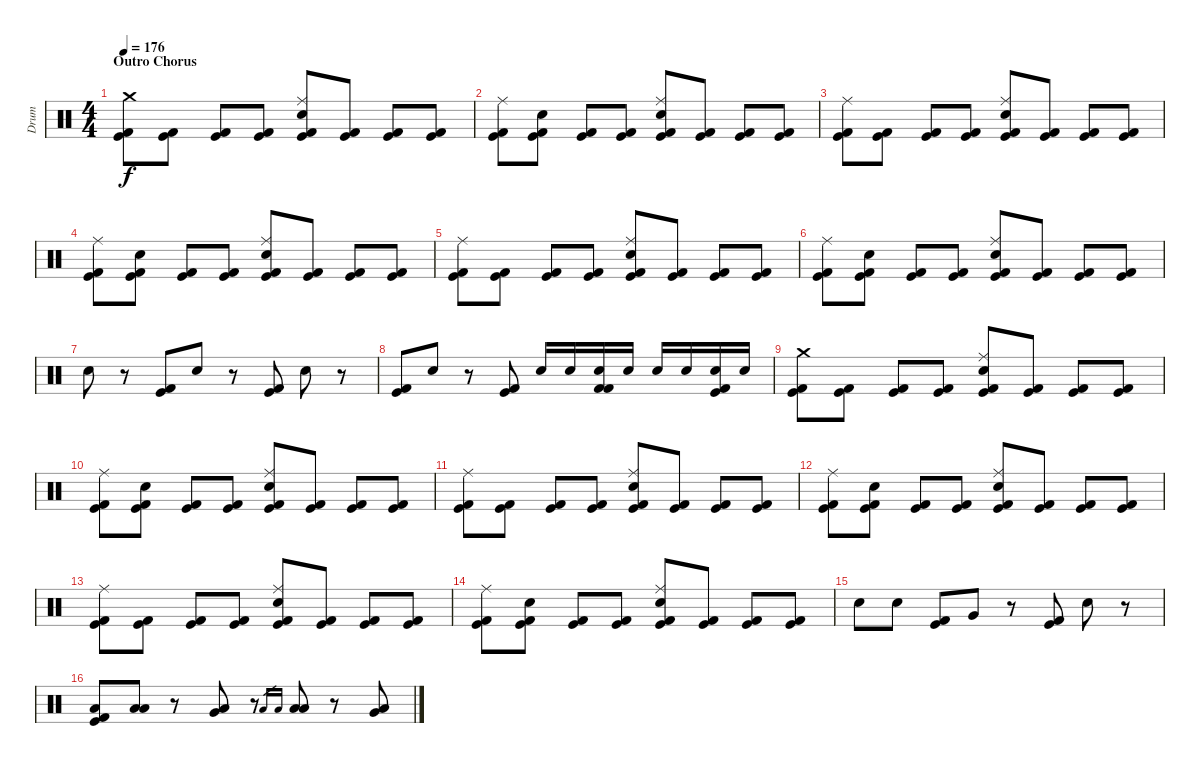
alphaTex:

\track ("Drum" "Drum") {instrument percussion}
\staff {score}
\articulation defaults
\ts (4 4)
\section ("" "Outro Chorus")
\tempo 176
\clef neutral
\ks c
("Crash medium (hit)" "Kick (hit)" "Kick (hit) 2").8{dy f} ("Kick (hit)" "Kick (hit) 2").8 ("Kick (hit)" "Kick (hit) 2").8 ("Kick (hit)" "Kick (hit) 2").8 ("Ride (middle)" "Electric Snare (hit)" "Kick (hit)" "Kick (hit) 2").8 ("Kick (hit)" "Kick (hit) 2").8 ("Kick (hit)" "Kick (hit) 2").8 ("Kick (hit)" "Kick (hit) 2").8 |
("Ride (middle)" "Kick (hit)" "Kick (hit) 2").8 ("Electric Snare (hit)" "Kick (hit)" "Kick (hit) 2").8 ("Kick (hit)" "Kick (hit) 2").8 ("Kick (hit)" "Kick (hit) 2").8 ("Ride (middle)" "Electric Snare (hit)" "Kick (hit)" "Kick (hit) 2").8 ("Kick (hit)" "Kick (hit) 2").8 ("Kick (hit)" "Kick (hit) 2").8 ("Kick (hit)" "Kick (hit) 2").8 |
("Ride (middle)" "Kick (hit)" "Kick (hit) 2").8 ("Kick (hit)" "Kick (hit) 2").8 ("Kick (hit)" "Kick (hit) 2").8 ("Kick (hit)" "Kick (hit) 2").8 ("Ride (middle)" "Electric Snare (hit)" "Kick (hit)" "Kick (hit) 2").8 ("Kick (hit)" "Kick (hit) 2").8 ("Kick (hit)" "Kick (hit) 2").8 ("Kick (hit)" "Kick (hit) 2").8 |
("Ride (middle)" "Kick (hit)" "Kick (hit) 2").8 ("Electric Snare (hit)" "Kick (hit)" "Kick (hit) 2").8 ("Kick (hit)" "Kick (hit) 2").8 ("Kick (hit)" "Kick (hit) 2").8 ("Ride (middle)" "Electric Snare (hit)" "Kick (hit)" "Kick (hit) 2").8 ("Kick (hit)" "Kick (hit) 2").8 ("Kick (hit)" "Kick (hit) 2").8 ("Kick (hit)" "Kick (hit) 2").8 |
("Ride (middle)" "Kick (hit)" "Kick (hit) 2").8 ("Kick (hit)" "Kick (hit) 2").8 ("Kick (hit)" "Kick (hit) 2").8 ("Kick (hit)" "Kick (hit) 2").8 ("Ride (middle)" "Electric Snare (hit)" "Kick (hit)" "Kick (hit) 2").8 ("Kick (hit)" "Kick (hit) 2").8 ("Kick (hit)" "Kick (hit) 2").8 ("Kick (hit)" "Kick (hit) 2").8 |
("Ride (middle)" "Kick (hit)" "Kick (hit) 2").8 ("Electric Snare (hit)" "Kick (hit)" "Kick (hit) 2").8 ("Kick (hit)" "Kick (hit) 2").8 ("Kick (hit)" "Kick (hit) 2").8 ("Ride (middle)" "Electric Snare (hit)" "Kick (hit)" "Kick (hit) 2").8 ("Kick (hit)" "Kick (hit) 2").8 ("Kick (hit)" "Kick (hit) 2").8 ("Kick (hit)" "Kick (hit) 2").8 |
"Electric Snare (hit)".8 r.8 ("Kick (hit)" "Kick (hit) 2").8 "Electric Snare (hit)".8 r.8 ("Kick (hit)" "Kick (hit) 2").8 "Electric Snare (hit)".8 r.8 |
("Kick (hit)" "Kick (hit) 2").8 "Electric Snare (hit)".8 r.8 ("Kick (hit)" "Kick (hit) 2").8 "Electric Snare (hit)".16 "Electric Snare (hit)".16 ("Electric Snare (hit)" "Kick (hit) 2" "Kick (hit) 2").16 "Electric Snare (hit)".16 "Electric Snare (hit)".16 "Electric Snare (hit)".16 ("Electric Snare (hit)" "Kick (hit)" "Kick (hit) 2").16 "Electric Snare (hit)".16 |
("Crash medium (hit)" "Kick (hit)" "Kick (hit) 2").8 ("Kick (hit)" "Kick (hit) 2").8 ("Kick (hit)" "Kick (hit) 2").8 ("Kick (hit)" "Kick (hit) 2").8 ("Ride (middle)" "Electric Snare (hit)" "Kick (hit)" "Kick (hit) 2").8 ("Kick (hit)" "Kick (hit) 2").8 ("Kick (hit)" "Kick (hit) 2").8 ("Kick (hit)" "Kick (hit) 2").8 |
("Ride (middle)" "Kick (hit)" "Kick (hit) 2").8 ("Electric Snare (hit)" "Kick (hit)" "Kick (hit) 2").8 ("Kick (hit)" "Kick (hit) 2").8 ("Kick (hit)" "Kick (hit) 2").8 ("Ride (middle)" "Electric Snare (hit)" "Kick (hit)" "Kick (hit) 2").8 ("Kick (hit)" "Kick (hit) 2").8 ("Kick (hit)" "Kick (hit) 2").8 ("Kick (hit)" "Kick (hit) 2").8 |
("Ride (middle)" "Kick (hit)" "Kick (hit) 2").8 ("Kick (hit)" "Kick (hit) 2").8 ("Kick (hit)" "Kick (hit) 2").8 ("Kick (hit)" "Kick (hit) 2").8 ("Ride (middle)" "Electric Snare (hit)" "Kick (hit)" "Kick (hit) 2").8 ("Kick (hit)" "Kick (hit) 2").8 ("Kick (hit)" "Kick (hit) 2").8 ("Kick (hit)" "Kick (hit) 2").8 |
("Ride (middle)" "Kick (hit)" "Kick (hit) 2").8 ("Electric Snare (hit)" "Kick (hit)" "Kick (hit) 2").8 ("Kick (hit)" "Kick (hit) 2").8 ("Kick (hit)" "Kick (hit) 2").8 ("Ride (middle)" "Electric Snare (hit)" "Kick (hit)" "Kick (hit) 2").8 ("Kick (hit)" "Kick (hit) 2").8 ("Kick (hit)" "Kick (hit) 2").8 ("Kick (hit)" "Kick (hit) 2").8 |
("Ride (middle)" "Kick (hit)" "Kick (hit) 2").8 ("Kick (hit)" "Kick (hit) 2").8 ("Kick (hit)" "Kick (hit) 2").8 ("Kick (hit)" "Kick (hit) 2").8 ("Ride (middle)" "Electric Snare (hit)" "Kick (hit)" "Kick (hit) 2").8 ("Kick (hit)" "Kick (hit) 2").8 ("Kick (hit)" "Kick (hit) 2").8 ("Kick (hit)" "Kick (hit) 2").8 |
("Ride (middle)" "Kick (hit)" "Kick (hit) 2").8 ("Electric Snare (hit)" "Kick (hit)" "Kick (hit) 2").8 ("Kick (hit)" "Kick (hit) 2").8 ("Kick (hit)" "Kick (hit) 2").8 ("Ride (middle)" "Electric Snare (hit)" "Kick (hit)" "Kick (hit) 2").8 ("Kick (hit)" "Kick (hit) 2").8 ("Kick (hit)" "Kick (hit) 2").8 ("Kick (hit)" "Kick (hit) 2").8 |
"Electric Snare (hit)".8 "Electric Snare (hit)".8 ("Kick (hit)" "Kick (hit) 2").8 "Very Low Tom (hit)".8 r.8 ("Kick (hit)" "Kick (hit) 2").8 "Electric Snare (hit)".8 r.8 |
("Low Floor Tom (hit)" "Kick (hit)" "Kick (hit) 2").8 ("Low Floor Tom (hit)" "Low Tom (hit)").8 r.8 ("Low Floor Tom (hit)" "Very Low Tom (hit)").8 r.8 "Low Floor Tom (hit)".16{gr} "Low Floor Tom (hit)".16{gr} ("Low Floor Tom (hit)" "Low Floor Tom (hit)").8 r.8 ("Very Low Tom (hit)" "Low Tom (hit)").8
